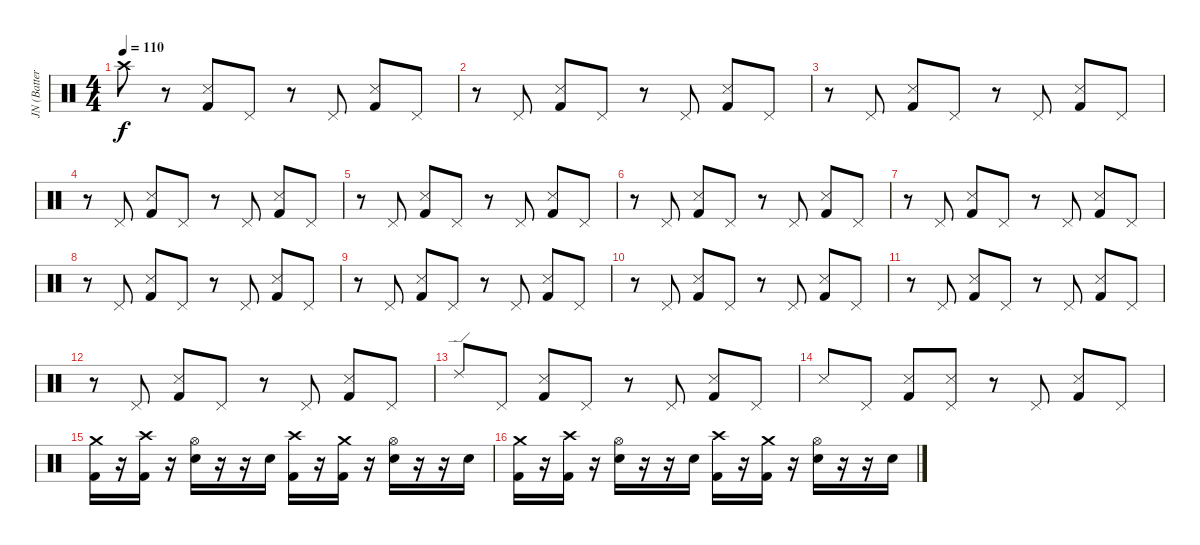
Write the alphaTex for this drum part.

\track ("JN (Batterie)" "JN (Batter") {instrument percussion}
\staff {score}
\articulation defaults
\ts (4 4)
\tempo 110
\clef neutral
\ks c "Crash high (hit)".8{dy f}
r.8 ("Snare (side stick) 3" "Kick (hit) 2").8 "Pedal Hi-Hat (hit)".8 r.8 "Pedal Hi-Hat (hit)".8 ("Snare (side stick) 3" "Kick (hit) 2").8 "Pedal Hi-Hat (hit)".8 |
r.8 "Pedal Hi-Hat (hit)".8 ("Snare (side stick) 3" "Kick (hit) 2").8 "Pedal Hi-Hat (hit)".8 r.8 "Pedal Hi-Hat (hit)".8 ("Snare (side stick) 3" "Kick (hit) 2").8 "Pedal Hi-Hat (hit)".8 |
r.8 "Pedal Hi-Hat (hit)".8 ("Snare (side stick) 3" "Kick (hit) 2").8 "Pedal Hi-Hat (hit)".8 r.8 "Pedal Hi-Hat (hit)".8 ("Snare (side stick) 3" "Kick (hit) 2").8 "Pedal Hi-Hat (hit)".8 |
r.8 "Pedal Hi-Hat (hit)".8 ("Snare (side stick) 3" "Kick (hit) 2").8 "Pedal Hi-Hat (hit)".8 r.8 "Pedal Hi-Hat (hit)".8 ("Snare (side stick) 3" "Kick (hit) 2").8 "Pedal Hi-Hat (hit)".8 |
r.8 "Pedal Hi-Hat (hit)".8 ("Snare (side stick) 3" "Kick (hit) 2").8 "Pedal Hi-Hat (hit)".8 r.8 "Pedal Hi-Hat (hit)".8 ("Snare (side stick) 3" "Kick (hit) 2").8 "Pedal Hi-Hat (hit)".8 |
r.8 "Pedal Hi-Hat (hit)".8 ("Snare (side stick) 3" "Kick (hit) 2").8 "Pedal Hi-Hat (hit)".8 r.8 "Pedal Hi-Hat (hit)".8 ("Snare (side stick) 3" "Kick (hit) 2").8 "Pedal Hi-Hat (hit)".8 |
r.8 "Pedal Hi-Hat (hit)".8 ("Snare (side stick) 3" "Kick (hit) 2").8 "Pedal Hi-Hat (hit)".8 r.8 "Pedal Hi-Hat (hit)".8 ("Snare (side stick) 3" "Kick (hit) 2").8 "Pedal Hi-Hat (hit)".8 |
r.8 "Pedal Hi-Hat (hit)".8 ("Snare (side stick) 3" "Kick (hit) 2").8 "Pedal Hi-Hat (hit)".8 r.8 "Pedal Hi-Hat (hit)".8 ("Snare (side stick) 3" "Kick (hit) 2").8 "Pedal Hi-Hat (hit)".8 |
r.8 "Pedal Hi-Hat (hit)".8 ("Snare (side stick) 3" "Kick (hit) 2").8 "Pedal Hi-Hat (hit)".8 r.8 "Pedal Hi-Hat (hit)".8 ("Snare (side stick) 3" "Kick (hit) 2").8 "Pedal Hi-Hat (hit)".8 |
r.8 "Pedal Hi-Hat (hit)".8 ("Snare (side stick) 3" "Kick (hit) 2").8 "Pedal Hi-Hat (hit)".8 r.8 "Pedal Hi-Hat (hit)".8 ("Snare (side stick) 3" "Kick (hit) 2").8 "Pedal Hi-Hat (hit)".8 |
r.8 "Pedal Hi-Hat (hit)".8 ("Snare (side stick) 3" "Kick (hit) 2").8 "Pedal Hi-Hat (hit)".8 r.8 "Pedal Hi-Hat (hit)".8 ("Snare (side stick) 3" "Kick (hit) 2").8 "Pedal Hi-Hat (hit)".8 |
r.8 "Pedal Hi-Hat (hit)".8 ("Snare (side stick) 3" "Kick (hit) 2").8 "Pedal Hi-Hat (hit)".8 r.8 "Pedal Hi-Hat (hit)".8 ("Snare (side stick) 3" "Kick (hit) 2").8 "Pedal Hi-Hat (hit)".8 |
"Ride (edge) 2".8 "Pedal Hi-Hat (hit)".8 ("Snare (side stick) 3" "Kick (hit) 2").8 "Pedal Hi-Hat (hit)".8 r.8 "Pedal Hi-Hat (hit)".8 ("Snare (side stick) 3" "Kick (hit) 2").8 "Pedal Hi-Hat (hit)".8 |
"Snare (side stick) 3".8 "Pedal Hi-Hat (hit)".8 ("Snare (side stick) 3" "Kick (hit) 2").8 ("Pedal Hi-Hat (hit)" "Snare (side stick) 3").8 r.8 "Pedal Hi-Hat (hit)".8 ("Snare (side stick) 3" "Kick (hit) 2").8 "Pedal Hi-Hat (hit)".8 |
("Crash medium (hit)" "Kick (hit) 2").16 r.16 ("Crash high (hit)" "Kick (hit) 2").16 r.16 ("Hi-Hat (open)" "Electric Snare (hit)").16 r.16 r.16 "Electric Snare (hit)".16 ("Crash high (hit)" "Kick (hit) 2").16 r.16 ("Crash medium (hit)" "Kick (hit) 2").16 r.16 ("Hi-Hat (open)" "Electric Snare (hit)").16 r.16 r.16 "Electric Snare (hit)".16 |
("Crash medium (hit)" "Kick (hit) 2").16 r.16 ("Crash high (hit)" "Kick (hit) 2").16 r.16 ("Hi-Hat (open)" "Electric Snare (hit)").16 r.16 r.16 "Electric Snare (hit)".16 ("Crash high (hit)" "Kick (hit) 2").16 r.16 ("Crash medium (hit)" "Kick (hit) 2").16 r.16 ("Hi-Hat (open)" "Electric Snare (hit)").16 r.16 r.16 "Electric Snare (hit)".16
